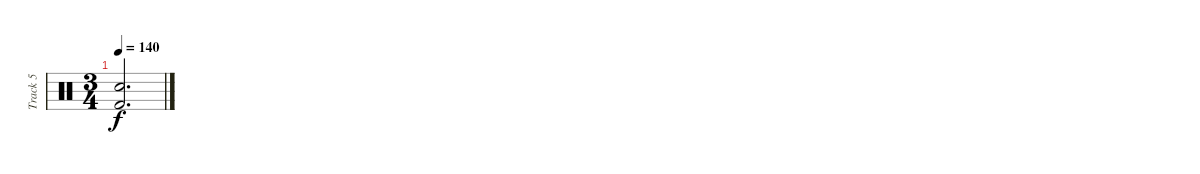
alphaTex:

\track ("Track 5" "Track 5") {instrument percussion}
\staff {score}
\articulation defaults
\ts (3 4)
\tempo 140
\clef neutral
\ks c
("Electric Snare (hit)" "Kick (hit) 2").2{d dy f}
